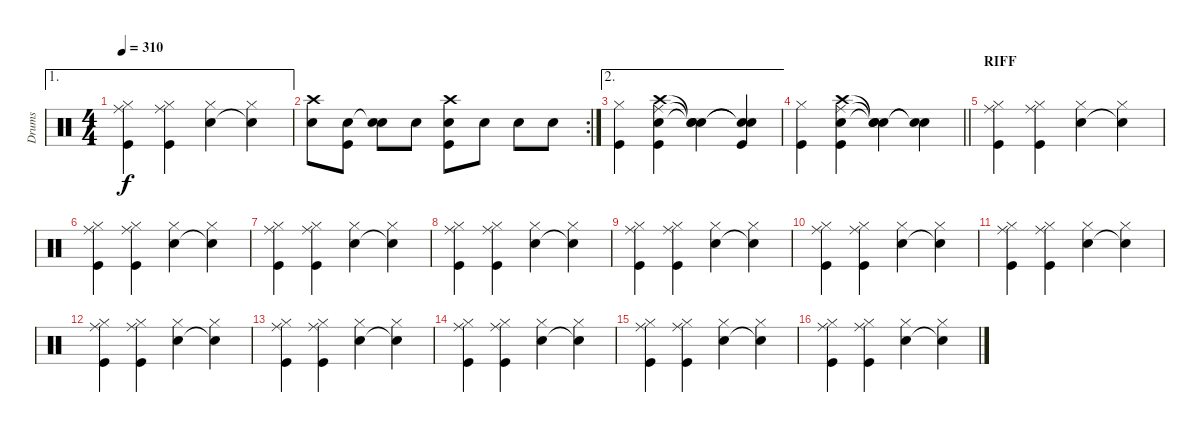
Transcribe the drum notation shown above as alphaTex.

\track ("Drums" "Drums") {instrument percussion}
\staff {score}
\articulation defaults
\ae 1
\ts (4 4)
\tempo 310
\clef neutral
\ks c
("Ride (middle)" "Hi-Hat (closed)" "Kick (hit)").4{dy f} ("Ride (middle)" "Hi-Hat (closed)" "Kick (hit)").4 ("Snare (hit) 2" "Hi-Hat (closed)").4 ("Snare (hit)"{t} "Hi-Hat (closed)").4 |
\rc 2
("Crash high (hit)" "Snare (hit) 2").8 ("Snare (hit) 2" "Kick (hit)").8 ("Snare (hit)"{t} "Snare (hit) 2").8 "Snare (hit) 2".8 ("Crash high (hit)" "Snare (hit) 2" "Kick (hit)").8 "Snare (hit) 2".8 "Snare (hit) 2".8 "Snare (hit) 2".8 |
\ae 2
("Hi-Hat (closed)" "Kick (hit)").4 ("Crash high (hit)" "Ride (middle)" "Snare (hit) 2" "Kick (hit)").4 ("Snare (hit)"{t} "Snare (hit)"{t} "Snare (hit)"{t}).4 ("Snare (hit)"{t} "Snare (hit)"{t} "Kick (hit)").4 |
\barLineRight lightlight
("Hi-Hat (closed)" "Kick (hit)").4 ("Crash high (hit)" "Ride (middle)" "Snare (hit) 2" "Kick (hit)").4 ("Snare (hit)"{t} "Snare (hit)"{t} "Snare (hit)"{t}).4 ("Snare (hit)"{t} "Snare (hit)"{t}).4 |
\section ("" "RIFF")
("Ride (middle)" "Hi-Hat (closed)" "Kick (hit)").4 ("Ride (middle)" "Hi-Hat (closed)" "Kick (hit)").4 ("Snare (hit) 2" "Hi-Hat (closed)").4 ("Snare (hit)"{t} "Hi-Hat (closed)").4 |
("Ride (middle)" "Hi-Hat (closed)" "Kick (hit)").4 ("Ride (middle)" "Hi-Hat (closed)" "Kick (hit)").4 ("Snare (hit) 2" "Hi-Hat (closed)").4 ("Snare (hit)"{t} "Hi-Hat (closed)").4 |
("Ride (middle)" "Hi-Hat (closed)" "Kick (hit)").4 ("Ride (middle)" "Hi-Hat (closed)" "Kick (hit)").4 ("Snare (hit) 2" "Hi-Hat (closed)").4 ("Snare (hit)"{t} "Hi-Hat (closed)").4 |
("Ride (middle)" "Hi-Hat (closed)" "Kick (hit)").4 ("Ride (middle)" "Hi-Hat (closed)" "Kick (hit)").4 ("Snare (hit) 2" "Hi-Hat (closed)").4 ("Snare (hit)"{t} "Hi-Hat (closed)").4 |
("Ride (middle)" "Hi-Hat (closed)" "Kick (hit)").4 ("Ride (middle)" "Hi-Hat (closed)" "Kick (hit)").4 ("Snare (hit) 2" "Hi-Hat (closed)").4 ("Snare (hit)"{t} "Hi-Hat (closed)").4 |
("Ride (middle)" "Hi-Hat (closed)" "Kick (hit)").4 ("Ride (middle)" "Hi-Hat (closed)" "Kick (hit)").4 ("Snare (hit) 2" "Hi-Hat (closed)").4 ("Snare (hit)"{t} "Hi-Hat (closed)").4 |
("Ride (middle)" "Hi-Hat (closed)" "Kick (hit)").4 ("Ride (middle)" "Hi-Hat (closed)" "Kick (hit)").4 ("Snare (hit) 2" "Hi-Hat (closed)").4 ("Snare (hit)"{t} "Hi-Hat (closed)").4 |
("Ride (middle)" "Hi-Hat (closed)" "Kick (hit)").4 ("Ride (middle)" "Hi-Hat (closed)" "Kick (hit)").4 ("Snare (hit) 2" "Hi-Hat (closed)").4 ("Snare (hit)"{t} "Hi-Hat (closed)").4 |
("Ride (middle)" "Hi-Hat (closed)" "Kick (hit)").4 ("Ride (middle)" "Hi-Hat (closed)" "Kick (hit)").4 ("Snare (hit) 2" "Hi-Hat (closed)").4 ("Snare (hit)"{t} "Hi-Hat (closed)").4 |
("Ride (middle)" "Hi-Hat (closed)" "Kick (hit)").4 ("Ride (middle)" "Hi-Hat (closed)" "Kick (hit)").4 ("Snare (hit) 2" "Hi-Hat (closed)").4 ("Snare (hit)"{t} "Hi-Hat (closed)").4 |
("Ride (middle)" "Hi-Hat (closed)" "Kick (hit)").4 ("Ride (middle)" "Hi-Hat (closed)" "Kick (hit)").4 ("Snare (hit) 2" "Hi-Hat (closed)").4 ("Snare (hit)"{t} "Hi-Hat (closed)").4 |
("Ride (middle)" "Hi-Hat (closed)" "Kick (hit)").4 ("Ride (middle)" "Hi-Hat (closed)" "Kick (hit)").4 ("Snare (hit) 2" "Hi-Hat (closed)").4 ("Snare (hit)"{t} "Hi-Hat (closed)").4
